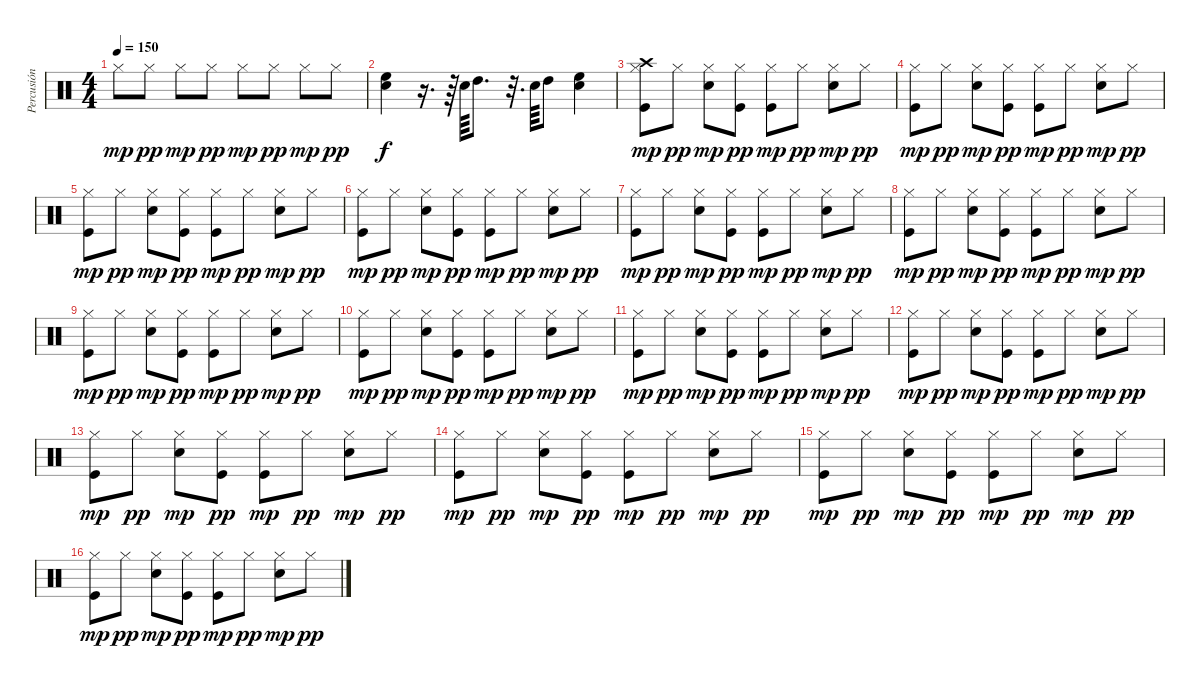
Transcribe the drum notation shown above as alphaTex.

\track ("Percusión" "Percusión") {instrument percussion}
\staff {score}
\articulation defaults
\ts (4 4)
\tempo 150
\clef neutral
\ks c "Hi-Hat (closed)".8{dy mp} "Hi-Hat (closed)".8{dy pp} "Hi-Hat (closed)".8{dy mp} "Hi-Hat (closed)".8{dy pp} "Hi-Hat (closed)".8{dy mp} "Hi-Hat (closed)".8{dy pp} "Hi-Hat (closed)".8{dy mp} "Hi-Hat (closed)".8{dy pp}
|
("High Floor Tom (hit)" "Snare (hit) 2").4{dy f} r.16{d} r.64 "Snare (hit) 2".64 "High Tom (hit)".8{d} r.32{d} "Snare (hit) 2".64 "High Tom (hit)".8 ("High Floor Tom (hit)" "Snare (hit) 2").4 |
("Crash high (hit)" "Hi-Hat (closed)" "Kick (hit)").8{dy mp} "Hi-Hat (closed)".8{dy pp} ("Hi-Hat (closed)" "Snare (hit) 2").8{dy mp} ("Hi-Hat (closed)" "Kick (hit)").8{dy pp} ("Hi-Hat (closed)" "Kick (hit)").8{dy mp} "Hi-Hat (closed)".8{dy pp} ("Hi-Hat (closed)" "Snare (hit) 2").8{dy mp} "Hi-Hat (closed)".8{dy pp} |
("Hi-Hat (closed)" "Kick (hit)").8{dy mp} "Hi-Hat (closed)".8{dy pp} ("Hi-Hat (closed)" "Snare (hit) 2").8{dy mp} ("Hi-Hat (closed)" "Kick (hit)").8{dy pp} ("Hi-Hat (closed)" "Kick (hit)").8{dy mp} "Hi-Hat (closed)".8{dy pp} ("Hi-Hat (closed)" "Snare (hit) 2").8{dy mp} "Hi-Hat (closed)".8{dy pp} |
("Hi-Hat (closed)" "Kick (hit)").8{dy mp} "Hi-Hat (closed)".8{dy pp} ("Hi-Hat (closed)" "Snare (hit) 2").8{dy mp} ("Hi-Hat (closed)" "Kick (hit)").8{dy pp} ("Hi-Hat (closed)" "Kick (hit)").8{dy mp} "Hi-Hat (closed)".8{dy pp} ("Hi-Hat (closed)" "Snare (hit) 2").8{dy mp} "Hi-Hat (closed)".8{dy pp} |
("Hi-Hat (closed)" "Kick (hit)").8{dy mp} "Hi-Hat (closed)".8{dy pp} ("Hi-Hat (closed)" "Snare (hit) 2").8{dy mp} ("Hi-Hat (closed)" "Kick (hit)").8{dy pp} ("Hi-Hat (closed)" "Kick (hit)").8{dy mp} "Hi-Hat (closed)".8{dy pp} ("Hi-Hat (closed)" "Snare (hit) 2").8{dy mp} "Hi-Hat (closed)".8{dy pp} |
("Hi-Hat (closed)" "Kick (hit)").8{dy mp} "Hi-Hat (closed)".8{dy pp} ("Hi-Hat (closed)" "Snare (hit) 2").8{dy mp} ("Hi-Hat (closed)" "Kick (hit)").8{dy pp} ("Hi-Hat (closed)" "Kick (hit)").8{dy mp} "Hi-Hat (closed)".8{dy pp} ("Hi-Hat (closed)" "Snare (hit) 2").8{dy mp} "Hi-Hat (closed)".8{dy pp} |
("Hi-Hat (closed)" "Kick (hit)").8{dy mp} "Hi-Hat (closed)".8{dy pp} ("Hi-Hat (closed)" "Snare (hit) 2").8{dy mp} ("Hi-Hat (closed)" "Kick (hit)").8{dy pp} ("Hi-Hat (closed)" "Kick (hit)").8{dy mp} "Hi-Hat (closed)".8{dy pp} ("Hi-Hat (closed)" "Snare (hit) 2").8{dy mp} "Hi-Hat (closed)".8{dy pp} |
("Hi-Hat (closed)" "Kick (hit)").8{dy mp} "Hi-Hat (closed)".8{dy pp} ("Hi-Hat (closed)" "Snare (hit) 2").8{dy mp} ("Hi-Hat (closed)" "Kick (hit)").8{dy pp} ("Hi-Hat (closed)" "Kick (hit)").8{dy mp} "Hi-Hat (closed)".8{dy pp} ("Hi-Hat (closed)" "Snare (hit) 2").8{dy mp} "Hi-Hat (closed)".8{dy pp} |
("Hi-Hat (closed)" "Kick (hit)").8{dy mp} "Hi-Hat (closed)".8{dy pp} ("Hi-Hat (closed)" "Snare (hit) 2").8{dy mp} ("Hi-Hat (closed)" "Kick (hit)").8{dy pp} ("Hi-Hat (closed)" "Kick (hit)").8{dy mp} "Hi-Hat (closed)".8{dy pp} ("Hi-Hat (closed)" "Snare (hit) 2").8{dy mp} "Hi-Hat (closed)".8{dy pp} |
("Hi-Hat (closed)" "Kick (hit)").8{dy mp} "Hi-Hat (closed)".8{dy pp} ("Hi-Hat (closed)" "Snare (hit) 2").8{dy mp} ("Hi-Hat (closed)" "Kick (hit)").8{dy pp} ("Hi-Hat (closed)" "Kick (hit)").8{dy mp} "Hi-Hat (closed)".8{dy pp} ("Hi-Hat (closed)" "Snare (hit) 2").8{dy mp} "Hi-Hat (closed)".8{dy pp} |
("Hi-Hat (closed)" "Kick (hit)").8{dy mp} "Hi-Hat (closed)".8{dy pp} ("Hi-Hat (closed)" "Snare (hit) 2").8{dy mp} ("Hi-Hat (closed)" "Kick (hit)").8{dy pp} ("Hi-Hat (closed)" "Kick (hit)").8{dy mp} "Hi-Hat (closed)".8{dy pp} ("Hi-Hat (closed)" "Snare (hit) 2").8{dy mp} "Hi-Hat (closed)".8{dy pp} |
("Hi-Hat (closed)" "Kick (hit)").8{dy mp} "Hi-Hat (closed)".8{dy pp} ("Hi-Hat (closed)" "Snare (hit) 2").8{dy mp} ("Hi-Hat (closed)" "Kick (hit)").8{dy pp} ("Hi-Hat (closed)" "Kick (hit)").8{dy mp} "Hi-Hat (closed)".8{dy pp} ("Hi-Hat (closed)" "Snare (hit) 2").8{dy mp} "Hi-Hat (closed)".8{dy pp} |
("Hi-Hat (closed)" "Kick (hit)").8{dy mp} "Hi-Hat (closed)".8{dy pp} ("Hi-Hat (closed)" "Snare (hit) 2").8{dy mp} ("Hi-Hat (closed)" "Kick (hit)").8{dy pp} ("Hi-Hat (closed)" "Kick (hit)").8{dy mp} "Hi-Hat (closed)".8{dy pp} ("Hi-Hat (closed)" "Snare (hit) 2").8{dy mp} "Hi-Hat (closed)".8{dy pp} |
("Hi-Hat (closed)" "Kick (hit)").8{dy mp} "Hi-Hat (closed)".8{dy pp} ("Hi-Hat (closed)" "Snare (hit) 2").8{dy mp} ("Hi-Hat (closed)" "Kick (hit)").8{dy pp} ("Hi-Hat (closed)" "Kick (hit)").8{dy mp} "Hi-Hat (closed)".8{dy pp} ("Hi-Hat (closed)" "Snare (hit) 2").8{dy mp} "Hi-Hat (closed)".8{dy pp} |
("Hi-Hat (closed)" "Kick (hit)").8{dy mp} "Hi-Hat (closed)".8{dy pp} ("Hi-Hat (closed)" "Snare (hit) 2").8{dy mp} ("Hi-Hat (closed)" "Kick (hit)").8{dy pp} ("Hi-Hat (closed)" "Kick (hit)").8{dy mp} "Hi-Hat (closed)".8{dy pp} ("Hi-Hat (closed)" "Snare (hit) 2").8{dy mp} "Hi-Hat (closed)".8{dy pp}
